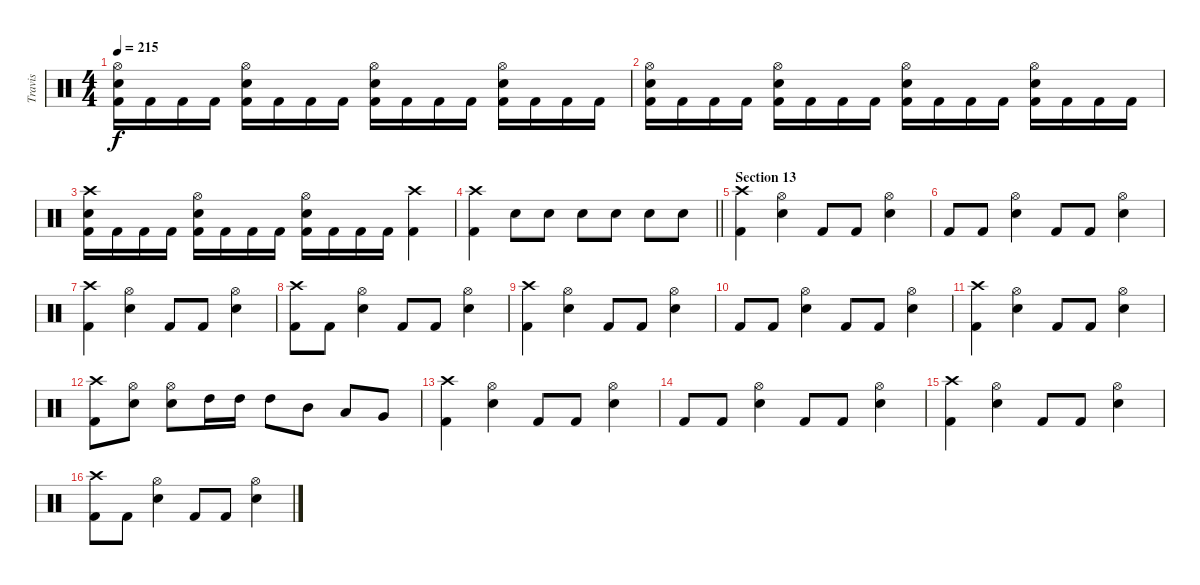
\track ("Travis" "Travis") {instrument percussion}
\staff {score}
\articulation defaults
\ts (4 4)
\tempo 215
\clef neutral
\ks c
("Hi-Hat (open)" "Snare (hit) 2" "Kick (hit) 2").16{dy f} "Kick (hit) 2".16 "Kick (hit) 2".16 "Kick (hit) 2".16 ("Hi-Hat (open)" "Snare (hit) 2" "Kick (hit) 2").16 "Kick (hit) 2".16 "Kick (hit) 2".16 "Kick (hit) 2".16 ("Hi-Hat (open)" "Snare (hit) 2" "Kick (hit) 2").16 "Kick (hit) 2".16 "Kick (hit) 2".16 "Kick (hit) 2".16 ("Hi-Hat (open)" "Snare (hit) 2" "Kick (hit) 2").16 "Kick (hit) 2".16 "Kick (hit) 2".16 "Kick (hit) 2".16 |
("Hi-Hat (open)" "Snare (hit) 2" "Kick (hit) 2").16 "Kick (hit) 2".16 "Kick (hit) 2".16 "Kick (hit) 2".16 ("Hi-Hat (open)" "Snare (hit) 2" "Kick (hit) 2").16 "Kick (hit) 2".16 "Kick (hit) 2".16 "Kick (hit) 2".16 ("Hi-Hat (open)" "Snare (hit) 2" "Kick (hit) 2").16 "Kick (hit) 2".16 "Kick (hit) 2".16 "Kick (hit) 2".16 ("Hi-Hat (open)" "Snare (hit) 2" "Kick (hit) 2").16 "Kick (hit) 2".16 "Kick (hit) 2".16 "Kick (hit) 2".16 |
("Crash high (hit)" "Snare (hit) 2" "Kick (hit) 2").16 "Kick (hit) 2".16 "Kick (hit) 2".16 "Kick (hit) 2".16 ("Hi-Hat (open)" "Snare (hit) 2" "Kick (hit) 2").16 "Kick (hit) 2".16 "Kick (hit) 2".16 "Kick (hit) 2".16 ("Hi-Hat (open)" "Snare (hit) 2" "Kick (hit) 2").16 "Kick (hit) 2".16 "Kick (hit) 2".16 "Kick (hit) 2".16 ("Crash high (hit)" "Kick (hit) 2").4 |
\barLineRight lightlight
("Crash high (hit)" "Kick (hit) 2").4 "Snare (hit) 2".8 "Snare (hit) 2".8 "Snare (hit) 2".8 "Snare (hit) 2".8 "Snare (hit) 2".8 "Snare (hit) 2".8 |
\section ("" "Section 13")
("Crash high (hit)" "Kick (hit) 2").4 ("Hi-Hat (open)" "Snare (hit) 2").4 "Kick (hit) 2".8 "Kick (hit) 2".8 ("Hi-Hat (open)" "Snare (hit) 2").4 |
"Kick (hit) 2".8 "Kick (hit) 2".8 ("Hi-Hat (open)" "Snare (hit) 2").4 "Kick (hit) 2".8 "Kick (hit) 2".8 ("Hi-Hat (open)" "Snare (hit) 2").4 |
("Crash high (hit)" "Kick (hit) 2").4 ("Hi-Hat (open)" "Snare (hit) 2").4 "Kick (hit) 2".8 "Kick (hit) 2".8 ("Hi-Hat (open)" "Snare (hit) 2").4 |
("Crash high (hit)" "Kick (hit) 2").8 "Kick (hit) 2".8 ("Hi-Hat (open)" "Snare (hit) 2").4 "Kick (hit) 2".8 "Kick (hit) 2".8 ("Hi-Hat (open)" "Snare (hit) 2").4 |
("Crash high (hit)" "Kick (hit) 2").4 ("Hi-Hat (open)" "Snare (hit) 2").4 "Kick (hit) 2".8 "Kick (hit) 2".8 ("Hi-Hat (open)" "Snare (hit) 2").4 |
"Kick (hit) 2".8 "Kick (hit) 2".8 ("Hi-Hat (open)" "Snare (hit) 2").4 "Kick (hit) 2".8 "Kick (hit) 2".8 ("Hi-Hat (open)" "Snare (hit) 2").4 |
("Crash high (hit)" "Kick (hit) 2").4 ("Hi-Hat (open)" "Snare (hit) 2").4 "Kick (hit) 2".8 "Kick (hit) 2".8 ("Hi-Hat (open)" "Snare (hit) 2").4 |
("Crash high (hit)" "Kick (hit) 2").8 ("Hi-Hat (open)" "Snare (hit) 2").8 ("Hi-Hat (open)" "Snare (hit) 2").8 "High Tom (hit)".16 "High Tom (hit)".16 "High Tom (hit)".8 "Mid Tom (hit)".8 "Low Tom (hit)".8 "Very Low Tom (hit)".8 |
("Crash high (hit)" "Kick (hit) 2").4 ("Hi-Hat (open)" "Snare (hit) 2").4 "Kick (hit) 2".8 "Kick (hit) 2".8 ("Hi-Hat (open)" "Snare (hit) 2").4 |
"Kick (hit) 2".8 "Kick (hit) 2".8 ("Hi-Hat (open)" "Snare (hit) 2").4 "Kick (hit) 2".8 "Kick (hit) 2".8 ("Hi-Hat (open)" "Snare (hit) 2").4 |
("Crash high (hit)" "Kick (hit) 2").4 ("Hi-Hat (open)" "Snare (hit) 2").4 "Kick (hit) 2".8 "Kick (hit) 2".8 ("Hi-Hat (open)" "Snare (hit) 2").4 |
("Crash high (hit)" "Kick (hit) 2").8 "Kick (hit) 2".8 ("Hi-Hat (open)" "Snare (hit) 2").4 "Kick (hit) 2".8 "Kick (hit) 2".8 ("Hi-Hat (open)" "Snare (hit) 2").4
